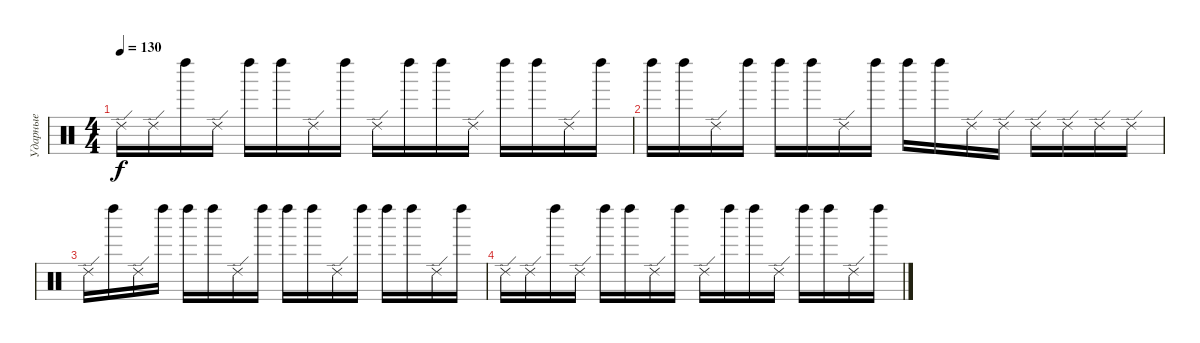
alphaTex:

\track ("Ударные" "Ударные") {instrument percussion}
\staff {score}
\articulation defaults
\ts (4 4)
\tempo 130
\clef neutral
\ks c "Ride (edge) 2".16{dy f} "Ride (edge) 2".16 "Left Maraca (hit)".16 "Ride (edge) 2".16 "Left Maraca (hit)".16 "Left Maraca (hit)".16 "Ride (edge) 2".16 "Left Maraca (hit)".16 "Ride (edge) 2".16 "Left Maraca (hit)".16 "Left Maraca (hit)".16 "Ride (edge) 2".16 "Left Maraca (hit)".16 "Left Maraca (hit)".16 "Ride (edge) 2".16 "Left Maraca (hit)".16
|
"Left Maraca (hit)".16 "Left Maraca (hit)".16 "Ride (edge) 2".16 "Left Maraca (hit)".16 "Left Maraca (hit)".16 "Left Maraca (hit)".16 "Ride (edge) 2".16 "Left Maraca (hit)".16 "Left Maraca (hit)".16 "Left Maraca (hit)".16 "Ride (edge) 2".16 "Ride (edge) 2".16 "Ride (edge) 2".16 "Ride (edge) 2".16 "Ride (edge) 2".16 "Ride (edge) 2".16 |
"Ride (edge) 2".16 "Left Maraca (hit)".16 "Ride (edge) 2".16 "Left Maraca (hit)".16 "Left Maraca (hit)".16 "Left Maraca (hit)".16 "Ride (edge) 2".16 "Left Maraca (hit)".16 "Left Maraca (hit)".16 "Left Maraca (hit)".16 "Ride (edge) 2".16 "Left Maraca (hit)".16 "Left Maraca (hit)".16 "Left Maraca (hit)".16 "Ride (edge) 2".16 "Left Maraca (hit)".16 |
"Ride (edge) 2".16 "Ride (edge) 2".16 "Left Maraca (hit)".16 "Ride (edge) 2".16 "Left Maraca (hit)".16 "Left Maraca (hit)".16 "Ride (edge) 2".16 "Left Maraca (hit)".16 "Ride (edge) 2".16 "Left Maraca (hit)".16 "Left Maraca (hit)".16 "Ride (edge) 2".16 "Left Maraca (hit)".16 "Left Maraca (hit)".16 "Ride (edge) 2".16 "Left Maraca (hit)".16
